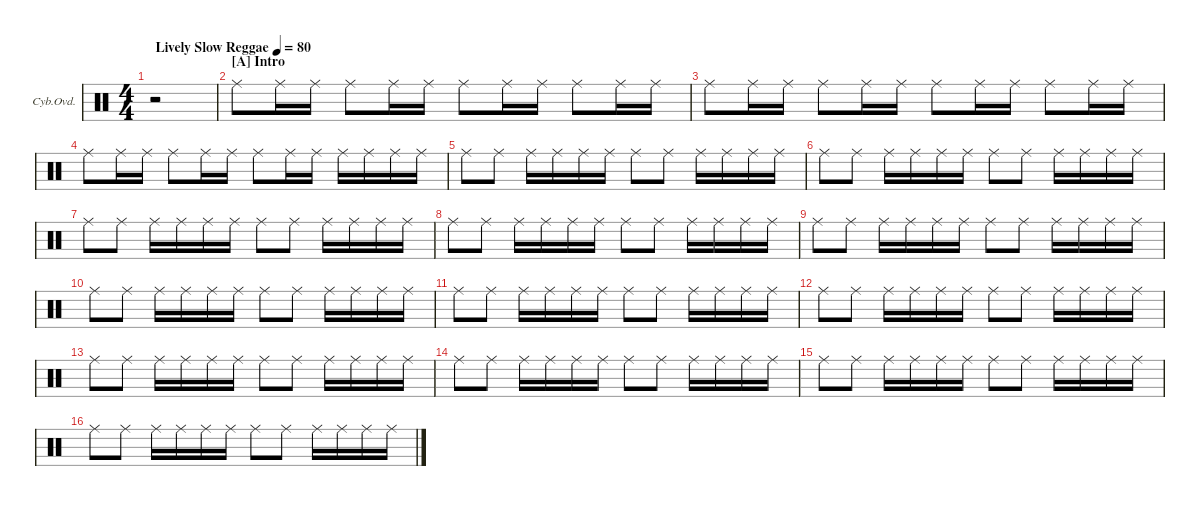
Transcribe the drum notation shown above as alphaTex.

\defaultSystemsLayout 4
\hideDynamics
\bracketExtendMode groupsimilarinstruments
\firstSystemTrackNameOrientation horizontal
\otherSystemsTrackNameOrientation horizontal
\track ("Cymbal Overdub" "Cyb.Ovd.") {multiBarRest instrument percussion}
\staff {score}
\articulation defaults
\ts (4 4)
\ac
\tempo (80 "Lively Slow Reggae")
\clef neutral
\ks c
r.2{dy p} |
\section ("A" "Intro")
"Ride (middle)".8 "Ride (middle)".16 "Ride (middle)".16 "Ride (middle)".8 "Ride (middle)".16 "Ride (middle)".16 "Ride (middle)".8 "Ride (middle)".16 "Ride (middle)".16 "Ride (middle)".8 "Ride (middle)".16 "Ride (middle)".16 |
"Ride (middle)".8 "Ride (middle)".16 "Ride (middle)".16 "Ride (middle)".8 "Ride (middle)".16 "Ride (middle)".16 "Ride (middle)".8 "Ride (middle)".16 "Ride (middle)".16 "Ride (middle)".8 "Ride (middle)".16 "Ride (middle)".16 |
"Ride (middle)".8 "Ride (middle)".16 "Ride (middle)".16 "Ride (middle)".8 "Ride (middle)".16 "Ride (middle)".16 "Ride (middle)".8 "Ride (middle)".16 "Ride (middle)".16 "Ride (middle)".16 "Ride (middle)".16 "Ride (middle)".16 "Ride (middle)".16 |
"Ride (middle)".8 "Ride (middle)".8 "Ride (middle)".16 "Ride (middle)".16 "Ride (middle)".16 "Ride (middle)".16 "Ride (middle)".8 "Ride (middle)".8 "Ride (middle)".16 "Ride (middle)".16 "Ride (middle)".16 "Ride (middle)".16 |
"Ride (middle)".8 "Ride (middle)".8 "Ride (middle)".16 "Ride (middle)".16 "Ride (middle)".16 "Ride (middle)".16 "Ride (middle)".8 "Ride (middle)".8 "Ride (middle)".16 "Ride (middle)".16 "Ride (middle)".16 "Ride (middle)".16 |
"Ride (middle)".8 "Ride (middle)".8 "Ride (middle)".16 "Ride (middle)".16 "Ride (middle)".16 "Ride (middle)".16 "Ride (middle)".8 "Ride (middle)".8 "Ride (middle)".16 "Ride (middle)".16 "Ride (middle)".16 "Ride (middle)".16 |
"Ride (middle)".8 "Ride (middle)".8 "Ride (middle)".16 "Ride (middle)".16 "Ride (middle)".16 "Ride (middle)".16 "Ride (middle)".8 "Ride (middle)".8 "Ride (middle)".16 "Ride (middle)".16 "Ride (middle)".16 "Ride (middle)".16 |
"Ride (middle)".8 "Ride (middle)".8 "Ride (middle)".16 "Ride (middle)".16 "Ride (middle)".16 "Ride (middle)".16 "Ride (middle)".8 "Ride (middle)".8 "Ride (middle)".16 "Ride (middle)".16 "Ride (middle)".16 "Ride (middle)".16 |
"Ride (middle)".8 "Ride (middle)".8 "Ride (middle)".16 "Ride (middle)".16 "Ride (middle)".16 "Ride (middle)".16 "Ride (middle)".8 "Ride (middle)".8 "Ride (middle)".16 "Ride (middle)".16 "Ride (middle)".16 "Ride (middle)".16 |
"Ride (middle)".8 "Ride (middle)".8 "Ride (middle)".16 "Ride (middle)".16 "Ride (middle)".16 "Ride (middle)".16 "Ride (middle)".8 "Ride (middle)".8 "Ride (middle)".16 "Ride (middle)".16 "Ride (middle)".16 "Ride (middle)".16 |
"Ride (middle)".8 "Ride (middle)".8 "Ride (middle)".16 "Ride (middle)".16 "Ride (middle)".16 "Ride (middle)".16 "Ride (middle)".8 "Ride (middle)".8 "Ride (middle)".16 "Ride (middle)".16 "Ride (middle)".16 "Ride (middle)".16 |
"Ride (middle)".8 "Ride (middle)".8 "Ride (middle)".16 "Ride (middle)".16 "Ride (middle)".16 "Ride (middle)".16 "Ride (middle)".8 "Ride (middle)".8 "Ride (middle)".16 "Ride (middle)".16 "Ride (middle)".16 "Ride (middle)".16 |
"Ride (middle)".8 "Ride (middle)".8 "Ride (middle)".16 "Ride (middle)".16 "Ride (middle)".16 "Ride (middle)".16 "Ride (middle)".8 "Ride (middle)".8 "Ride (middle)".16 "Ride (middle)".16 "Ride (middle)".16 "Ride (middle)".16 |
"Ride (middle)".8 "Ride (middle)".8 "Ride (middle)".16 "Ride (middle)".16 "Ride (middle)".16 "Ride (middle)".16 "Ride (middle)".8 "Ride (middle)".8 "Ride (middle)".16 "Ride (middle)".16 "Ride (middle)".16 "Ride (middle)".16 |
"Ride (middle)".8 "Ride (middle)".8 "Ride (middle)".16 "Ride (middle)".16 "Ride (middle)".16 "Ride (middle)".16 "Ride (middle)".8 "Ride (middle)".8 "Ride (middle)".16 "Ride (middle)".16 "Ride (middle)".16 "Ride (middle)".16
